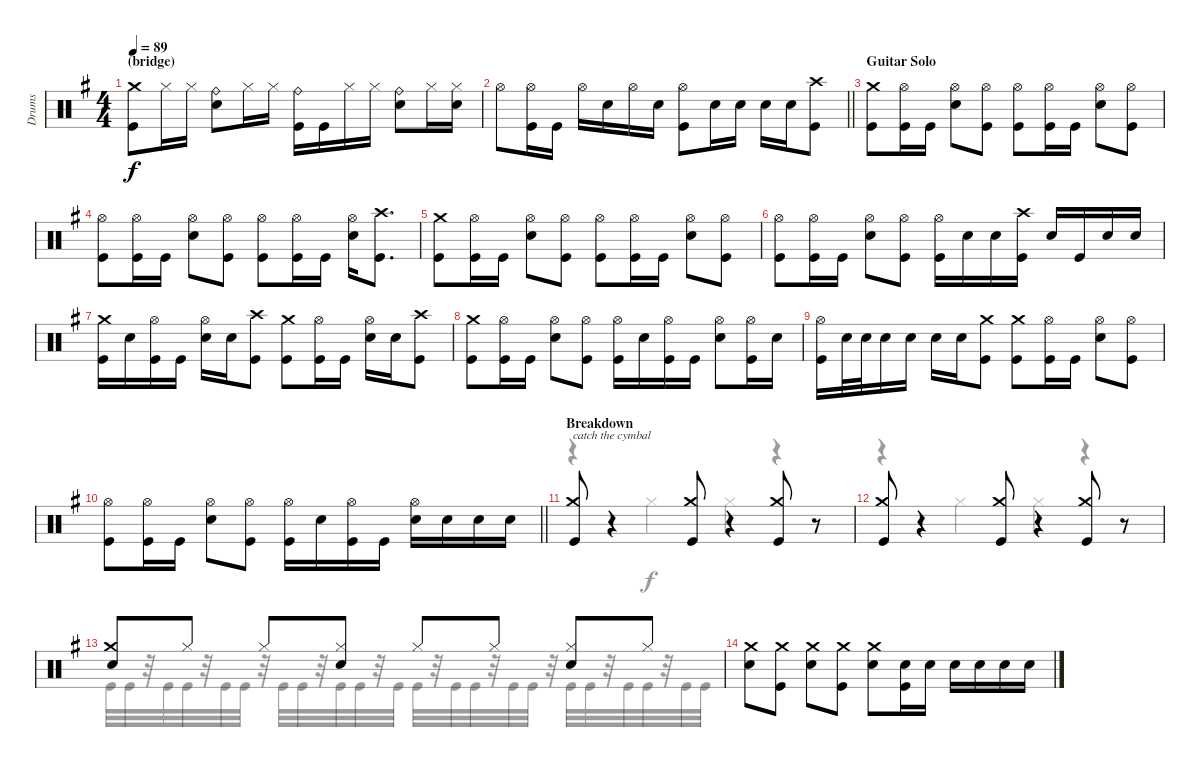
\track ("Drums" "Drums") {instrument percussion}
\staff {score}
\articulation defaults
\voice
\ts (4 4)
\section ("" "(bridge)")
\tempo 89
\clef neutral
\ks eminor
("Crash medium (hit)" "Kick (hit)").8{dy f} "Hi-Hat (closed)".16 "Hi-Hat (closed)".16 ("Ride (bell)" "Electric Snare (hit)").8 "Hi-Hat (closed)".16 "Hi-Hat (closed)".16 ("Ride (bell)" "Kick (hit)").16 "Kick (hit)".16 "Hi-Hat (closed)".16 "Hi-Hat (closed)".16 ("Ride (bell)" "Electric Snare (hit)").8 "Hi-Hat (closed)".16 ("Hi-Hat (closed)" "Electric Snare (hit)").16 |
\barLineRight lightlight "Hi-Hat (open)".8
("Hi-Hat (open)" "Kick (hit)").16 "Kick (hit)".16 "Hi-Hat (open)".16 "Electric Snare (hit)".16 "Hi-Hat (open)".16 "Electric Snare (hit)".16 ("Hi-Hat (open)" "Kick (hit)").8 "Electric Snare (hit)".16 "Electric Snare (hit)".16 "Electric Snare (hit)".16 "Electric Snare (hit)".16 ("Crash high (hit)" "Kick (hit)").8 |
\section ("" "Guitar Solo")
("Crash medium (hit)" "Kick (hit)").8 ("Hi-Hat (open)" "Kick (hit)").16 "Kick (hit)".16 ("Hi-Hat (open)" "Electric Snare (hit)").8 ("Hi-Hat (open)" "Kick (hit)").8 ("Hi-Hat (open)" "Kick (hit)").8 ("Hi-Hat (open)" "Kick (hit)").16 "Kick (hit)".16 ("Hi-Hat (open)" "Electric Snare (hit)").8 ("Hi-Hat (open)" "Kick (hit)").8 |
("Hi-Hat (open)" "Kick (hit)").8 ("Hi-Hat (open)" "Kick (hit)").16 "Kick (hit)".16 ("Hi-Hat (open)" "Electric Snare (hit)").8 ("Hi-Hat (open)" "Kick (hit)").8 ("Hi-Hat (open)" "Kick (hit)").8 ("Hi-Hat (open)" "Kick (hit)").16 "Kick (hit)".16 ("Hi-Hat (open)" "Electric Snare (hit)").16 ("Crash high (hit)" "Kick (hit)").8{d} |
("Crash medium (hit)" "Kick (hit)").8 ("Hi-Hat (open)" "Kick (hit)").16 "Kick (hit)".16 ("Hi-Hat (open)" "Electric Snare (hit)").8 ("Hi-Hat (open)" "Kick (hit)").8 ("Hi-Hat (open)" "Kick (hit)").8 ("Hi-Hat (open)" "Kick (hit)").16 "Kick (hit)".16 ("Hi-Hat (open)" "Electric Snare (hit)").8 ("Hi-Hat (open)" "Kick (hit)").8 |
("Hi-Hat (open)" "Kick (hit)").8 ("Hi-Hat (open)" "Kick (hit)").16 "Kick (hit)".16 ("Hi-Hat (open)" "Electric Snare (hit)").8 ("Hi-Hat (open)" "Kick (hit)").8 ("Hi-Hat (open)" "Kick (hit)").16 "Electric Snare (hit)".16 "Electric Snare (hit)".16 ("Crash high (hit)" "Kick (hit)").16 "Electric Snare (hit)".16 "Kick (hit)".16 "Electric Snare (hit)".16 "Electric Snare (hit)".16 |
("Crash medium (hit)" "Kick (hit)").16 "Electric Snare (hit)".16 ("Hi-Hat (open)" "Kick (hit)").16 "Kick (hit)".16 ("Hi-Hat (open)" "Electric Snare (hit)").16 "Electric Snare (hit)".16 ("Crash high (hit)" "Kick (hit)").8 ("Crash medium (hit)" "Kick (hit)").8 ("Hi-Hat (open)" "Kick (hit)").16 "Kick (hit)".16 ("Hi-Hat (open)" "Electric Snare (hit)").16 "Electric Snare (hit)".16 ("Crash high (hit)" "Kick (hit)").8 |
("Crash medium (hit)" "Kick (hit)").8 ("Hi-Hat (open)" "Kick (hit)").16 "Kick (hit)".16 ("Hi-Hat (open)" "Electric Snare (hit)").8 ("Hi-Hat (open)" "Kick (hit)").8 ("Hi-Hat (open)" "Kick (hit)").16 "Electric Snare (hit)".16 ("Hi-Hat (open)" "Kick (hit)").16 "Kick (hit)".16 ("Hi-Hat (open)" "Electric Snare (hit)").8 ("Hi-Hat (open)" "Kick (hit)").16 "Electric Snare (hit)".16 |
("Hi-Hat (open)" "Kick (hit)").16 "Electric Snare (hit)".32 "Electric Snare (hit)".32 "Electric Snare (hit)".16 "Electric Snare (hit)".16 "Electric Snare (hit)".16 "Electric Snare (hit)".16 ("Crash medium (hit)" "Kick (hit)").8 ("Crash medium (hit)" "Kick (hit)").8 ("Hi-Hat (open)" "Kick (hit)").16 "Kick (hit)".16 ("Hi-Hat (open)" "Electric Snare (hit)").8 ("Hi-Hat (open)" "Kick (hit)").8 |
\barLineRight lightlight
("Hi-Hat (open)" "Kick (hit)").8 ("Hi-Hat (open)" "Kick (hit)").16 "Kick (hit)".16 ("Hi-Hat (open)" "Electric Snare (hit)").8 ("Hi-Hat (open)" "Kick (hit)").8 ("Hi-Hat (open)" "Kick (hit)").16 "Electric Snare (hit)".16 ("Hi-Hat (open)" "Kick (hit)").16 "Kick (hit)".16 ("Hi-Hat (open)" "Electric Snare (hit)").16 "Electric Snare (hit)".16 "Electric Snare (hit)".16 "Electric Snare (hit)".16 |
\section ("" "Breakdown")
("Crash medium (hit)" "Kick (hit)").8{txt "catch the cymbal" beam Up} r.4 ("Crash medium (hit)" "Kick (hit)").8{beam Up} r.4 ("Crash medium (hit)" "Kick (hit)").8{beam Up} r.8 |
("Crash medium (hit)" "Kick (hit)").8 r.4 ("Crash medium (hit)" "Kick (hit)").8 r.4 ("Crash medium (hit)" "Kick (hit)").8 r.8 |
("Crash medium (hit)" "Electric Snare (hit)").8 "Hi-Hat (closed)".8 "Hi-Hat (closed)".8 ("Hi-Hat (closed)" "Electric Snare (hit)").8 "Hi-Hat (closed)".8 "Hi-Hat (closed)".8 ("Hi-Hat (closed)" "Electric Snare (hit)").8 "Hi-Hat (closed)".8 |
("Crash medium (hit)" "Electric Snare (hit)").8 ("Crash medium (hit)" "Kick (hit)").8 ("Crash medium (hit)" "Electric Snare (hit)").8 ("Crash medium (hit)" "Kick (hit)").8 ("Crash medium (hit)" "Electric Snare (hit)").8 ("Electric Snare (hit)" "Kick (hit)").16 "Electric Snare (hit)".16 "Electric Snare (hit)".16 "Electric Snare (hit)".16 "Electric Snare (hit)".16 "Electric Snare (hit)".16
\voice
\clef neutral
\ottava regular
\simile none
\ks eminor
|
\barLineRight lightlight
|
|
|
|
|
|
|
|
\barLineRight lightlight
|
r.4 "Hi-Hat (closed)".4{beam Down} "Hi-Hat (closed)".4{beam Down} r.4 |
r.4 "Hi-Hat (closed)".4 "Hi-Hat (closed)".4 r.4 |
"Kick (hit)".32 "Kick (hit)".32 r.32 "Kick (hit)".32 "Kick (hit)".32 r.32 "Kick (hit)".32 "Kick (hit)".32 r.32 "Kick (hit)".32 "Kick (hit)".32 r.32 "Kick (hit)".32 "Kick (hit)".32 r.32 "Kick (hit)".32 "Kick (hit)".32 r.32 "Kick (hit)".32 "Kick (hit)".32 r.32 "Kick (hit)".32 "Kick (hit)".32 r.32 "Kick (hit)".32 "Kick (hit)".32 r.32 "Kick (hit)".32 "Kick (hit)".32 r.32 "Kick (hit)".32 "Kick (hit)".32 |
